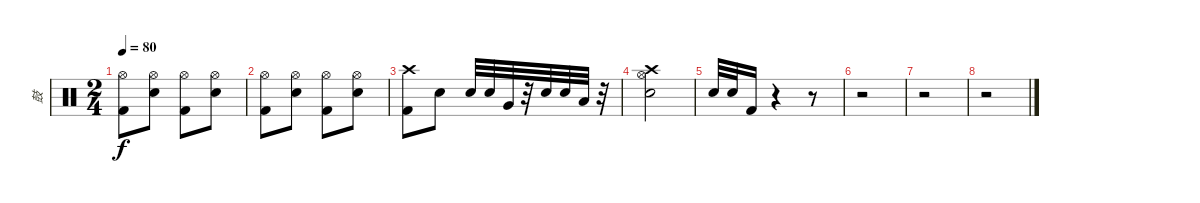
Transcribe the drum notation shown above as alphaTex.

\track ("鼓" "鼓") {instrument percussion}
\staff {score}
\articulation defaults
\ts (2 4)
\tempo 80
\clef neutral
\ks c
("Hi-Hat (open)" "Kick (hit) 2").8{dy f} ("Hi-Hat (open)" "Electric Snare (hit)").8 ("Hi-Hat (open)" "Kick (hit) 2").8 ("Hi-Hat (open)" "Electric Snare (hit)").8 |
("Hi-Hat (open)" "Kick (hit) 2").8 ("Hi-Hat (open)" "Electric Snare (hit)").8 ("Hi-Hat (open)" "Kick (hit) 2").8 ("Hi-Hat (open)" "Electric Snare (hit)").8 |
("Crash high (hit)" "Kick (hit) 2").8 "Electric Snare (hit)".8 "Electric Snare (hit)".32 "Electric Snare (hit)".32 "Very Low Tom (hit)".32 r.32 "Electric Snare (hit)".32 "Electric Snare (hit)".32 "Low Floor Tom (hit)".32 r.32 |
("Crash high (hit)" "Electric Snare (hit)" "Hi-Hat (open)").2 |
"Electric Snare (hit)".32 "Electric Snare (hit)".32 "Kick (hit) 2".16 r.4 r.8 |
r.2 |
r.2 |
r.2
